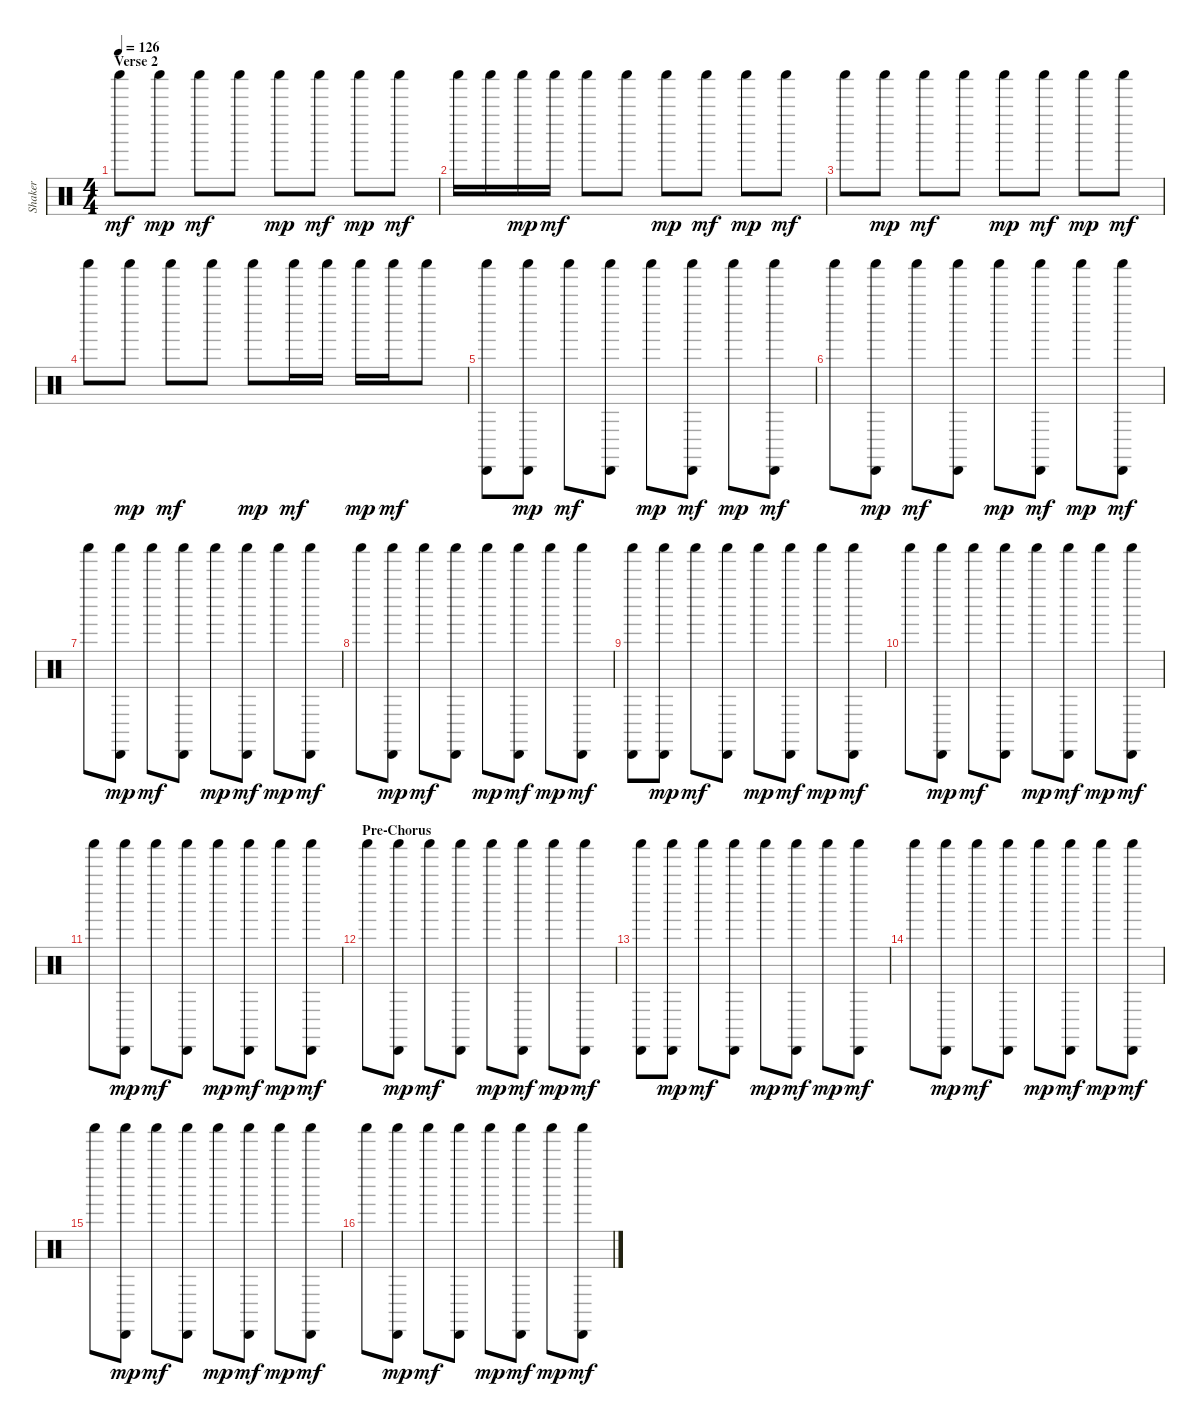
\track ("Shaker" "Shaker") {instrument percussion}
\staff {score}
\articulation defaults
\ts (4 4)
\section ("" "Verse 2")
\tempo 126
\clef neutral
\ks c "Shaker (hit)".8{dy mf} "Shaker (hit)".8{dy mp} "Shaker (hit)".8{dy mf} "Shaker (hit)".8 "Shaker (hit)".8{dy mp} "Shaker (hit)".8{dy mf} "Shaker (hit)".8{dy mp} "Shaker (hit)".8{dy mf}
|
"Shaker (hit)".16 "Shaker (hit)".16 "Shaker (hit)".16{dy mp} "Shaker (hit)".16{dy mf} "Shaker (hit)".8 "Shaker (hit)".8 "Shaker (hit)".8{dy mp} "Shaker (hit)".8{dy mf} "Shaker (hit)".8{dy mp} "Shaker (hit)".8{dy mf} |
"Shaker (hit)".8 "Shaker (hit)".8{dy mp} "Shaker (hit)".8{dy mf} "Shaker (hit)".8 "Shaker (hit)".8{dy mp} "Shaker (hit)".8{dy mf} "Shaker (hit)".8{dy mp} "Shaker (hit)".8{dy mf} |
"Shaker (hit)".8 "Shaker (hit)".8{dy mp} "Shaker (hit)".8{dy mf} "Shaker (hit)".8 "Shaker (hit)".8{dy mp} "Shaker (hit)".16{dy mf} "Shaker (hit)".16 "Shaker (hit)".16{dy mp} "Shaker (hit)".16{dy mf} "Shaker (hit)".8 |
("Cabasa (hit)" "Shaker (hit)").8 ("Cabasa (hit)" "Shaker (hit)").8{dy mp} "Shaker (hit)".8{dy mf} ("Cabasa (hit)" "Shaker (hit)").8 "Shaker (hit)".8{dy mp} ("Cabasa (hit)" "Shaker (hit)").8{dy mf} "Shaker (hit)".8{dy mp} ("Cabasa (hit)" "Shaker (hit)").8{dy mf} |
"Shaker (hit)".8 ("Cabasa (hit)" "Shaker (hit)").8{dy mp} "Shaker (hit)".8{dy mf} ("Cabasa (hit)" "Shaker (hit)").8 "Shaker (hit)".8{dy mp} ("Cabasa (hit)" "Shaker (hit)").8{dy mf} "Shaker (hit)".8{dy mp} ("Cabasa (hit)" "Shaker (hit)").8{dy mf} |
"Shaker (hit)".8 ("Cabasa (hit)" "Shaker (hit)").8{dy mp} "Shaker (hit)".8{dy mf} ("Cabasa (hit)" "Shaker (hit)").8 "Shaker (hit)".8{dy mp} ("Cabasa (hit)" "Shaker (hit)").8{dy mf} "Shaker (hit)".8{dy mp} ("Cabasa (hit)" "Shaker (hit)").8{dy mf} |
"Shaker (hit)".8 ("Cabasa (hit)" "Shaker (hit)").8{dy mp} "Shaker (hit)".8{dy mf} ("Cabasa (hit)" "Shaker (hit)").8 "Shaker (hit)".8{dy mp} ("Cabasa (hit)" "Shaker (hit)").8{dy mf} "Shaker (hit)".8{dy mp} ("Cabasa (hit)" "Shaker (hit)").8{dy mf} |
("Cabasa (hit)" "Shaker (hit)").8 ("Cabasa (hit)" "Shaker (hit)").8{dy mp} "Shaker (hit)".8{dy mf} ("Cabasa (hit)" "Shaker (hit)").8 "Shaker (hit)".8{dy mp} ("Cabasa (hit)" "Shaker (hit)").8{dy mf} "Shaker (hit)".8{dy mp} ("Cabasa (hit)" "Shaker (hit)").8{dy mf} |
"Shaker (hit)".8 ("Cabasa (hit)" "Shaker (hit)").8{dy mp} "Shaker (hit)".8{dy mf} ("Cabasa (hit)" "Shaker (hit)").8 "Shaker (hit)".8{dy mp} ("Cabasa (hit)" "Shaker (hit)").8{dy mf} "Shaker (hit)".8{dy mp} ("Cabasa (hit)" "Shaker (hit)").8{dy mf} |
"Shaker (hit)".8 ("Cabasa (hit)" "Shaker (hit)").8{dy mp} "Shaker (hit)".8{dy mf} ("Cabasa (hit)" "Shaker (hit)").8 "Shaker (hit)".8{dy mp} ("Cabasa (hit)" "Shaker (hit)").8{dy mf} "Shaker (hit)".8{dy mp} ("Cabasa (hit)" "Shaker (hit)").8{dy mf} |
\section ("" "Pre-Chorus")
"Shaker (hit)".8 ("Cabasa (hit)" "Shaker (hit)").8{dy mp} "Shaker (hit)".8{dy mf} ("Cabasa (hit)" "Shaker (hit)").8 "Shaker (hit)".8{dy mp} ("Cabasa (hit)" "Shaker (hit)").8{dy mf} "Shaker (hit)".8{dy mp} ("Cabasa (hit)" "Shaker (hit)").8{dy mf} |
("Cabasa (hit)" "Shaker (hit)").8 ("Cabasa (hit)" "Shaker (hit)").8{dy mp} "Shaker (hit)".8{dy mf} ("Cabasa (hit)" "Shaker (hit)").8 "Shaker (hit)".8{dy mp} ("Cabasa (hit)" "Shaker (hit)").8{dy mf} "Shaker (hit)".8{dy mp} ("Cabasa (hit)" "Shaker (hit)").8{dy mf} |
"Shaker (hit)".8 ("Cabasa (hit)" "Shaker (hit)").8{dy mp} "Shaker (hit)".8{dy mf} ("Cabasa (hit)" "Shaker (hit)").8 "Shaker (hit)".8{dy mp} ("Cabasa (hit)" "Shaker (hit)").8{dy mf} "Shaker (hit)".8{dy mp} ("Cabasa (hit)" "Shaker (hit)").8{dy mf} |
"Shaker (hit)".8 ("Cabasa (hit)" "Shaker (hit)").8{dy mp} "Shaker (hit)".8{dy mf} ("Cabasa (hit)" "Shaker (hit)").8 "Shaker (hit)".8{dy mp} ("Cabasa (hit)" "Shaker (hit)").8{dy mf} "Shaker (hit)".8{dy mp} ("Cabasa (hit)" "Shaker (hit)").8{dy mf} |
"Shaker (hit)".8 ("Cabasa (hit)" "Shaker (hit)").8{dy mp} "Shaker (hit)".8{dy mf} ("Cabasa (hit)" "Shaker (hit)").8 "Shaker (hit)".8{dy mp} ("Cabasa (hit)" "Shaker (hit)").8{dy mf} "Shaker (hit)".8{dy mp} ("Cabasa (hit)" "Shaker (hit)").8{dy mf}
